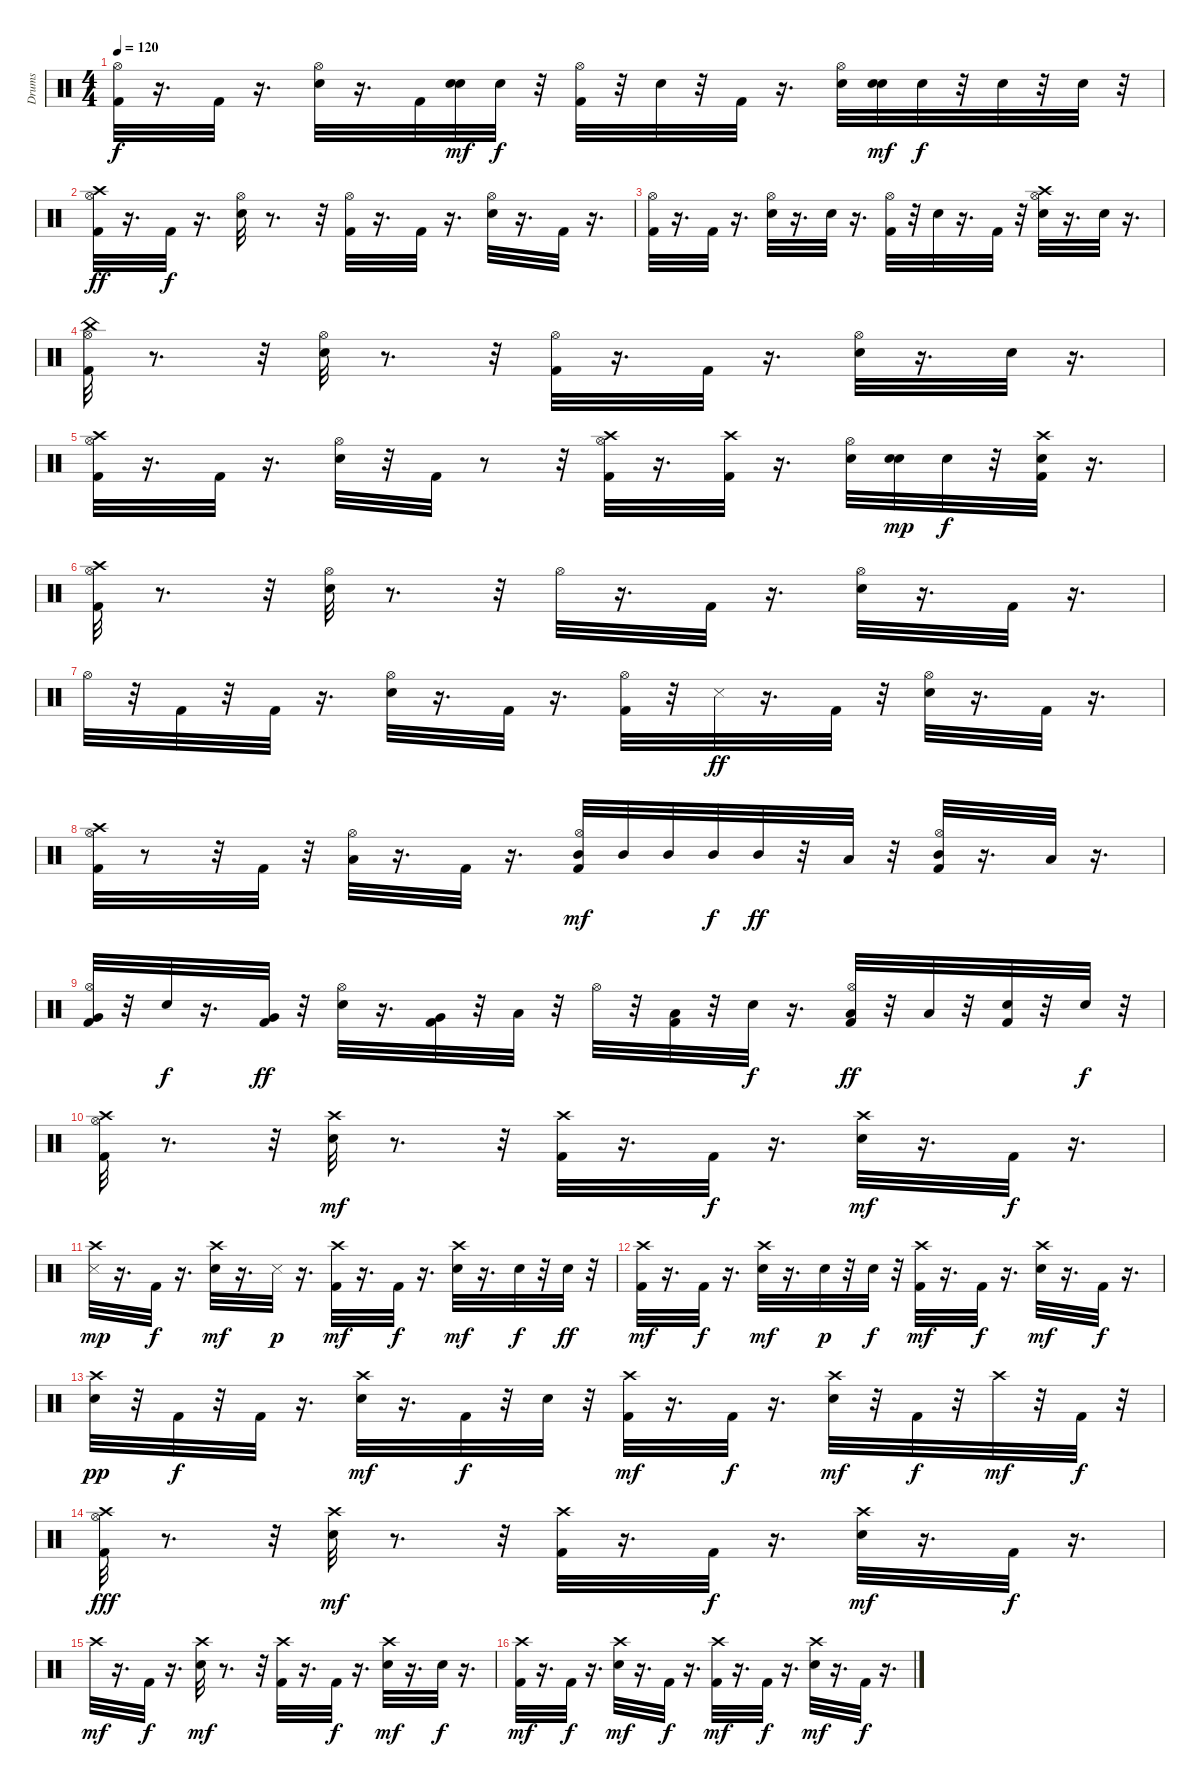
\track ("Drums" "Drums") {instrument percussion}
\staff {score}
\articulation defaults
\ts (4 4)
\tempo 120
\clef neutral
\ks c
("Kick (hit) 2" "Hi-Hat (open)").32{dy f} r.16{d} "Kick (hit) 2".32 r.16{d} ("Snare (hit) 2" "Hi-Hat (open)").32 r.16{d} "Kick (hit) 2".32 ("Snare (hit) 2" "Snare (hit) 2").32{dy mf} "Snare (hit) 2".32{dy f} r.32 ("Kick (hit) 2" "Hi-Hat (open)").32 r.32 "Snare (hit) 2".32 r.32 "Kick (hit) 2".32 r.16{d} ("Snare (hit) 2" "Hi-Hat (open)").32 ("Snare (hit) 2" "Snare (hit) 2").32{dy mf} "Snare (hit) 2".32{dy f} r.32 "Snare (hit) 2".32 r.32 "Snare (hit) 2".32 r.32 |
("Crash high (hit)" "Hi-Hat (open)" "Kick (hit) 2").32{dy ff} r.16{d} "Kick (hit) 2".32{dy f} r.16{d} ("Snare (hit) 2" "Hi-Hat (open)").32 r.8{d} r.32 ("Kick (hit) 2" "Hi-Hat (open)").32 r.16{d} "Kick (hit) 2".32 r.16{d} ("Snare (hit) 2" "Hi-Hat (open)").32 r.16{d} "Kick (hit) 2".32 r.16{d} |
("Kick (hit) 2" "Hi-Hat (open)").32 r.16{d} "Kick (hit) 2".32 r.16{d} ("Snare (hit) 2" "Hi-Hat (open)").32 r.16{d} "Snare (hit) 2".32 r.16{d} ("Kick (hit) 2" "Hi-Hat (open)").32 r.32 "Snare (hit) 2".32 r.16{d} "Kick (hit) 2".32 r.32 ("Crash high (hit)" "Snare (hit) 2" "Hi-Hat (open)").32 r.16{d} "Snare (hit) 2".32 r.16{d} |
("Kick (hit) 2" "Hi-Hat (open)" "China (hit)").32 r.8{d} r.32 ("Snare (hit) 2" "Hi-Hat (open)").32 r.8{d} r.32 ("Kick (hit) 2" "Hi-Hat (open)").32 r.16{d} "Kick (hit) 2".32 r.16{d} ("Snare (hit) 2" "Hi-Hat (open)").32 r.16{d} "Snare (hit) 2".32 r.16{d} |
("Crash high (hit)" "Kick (hit) 2" "Hi-Hat (open)").32 r.16{d} "Kick (hit) 2".32 r.16{d} ("Snare (hit) 2" "Hi-Hat (open)").32 r.32 "Kick (hit) 2".32 r.8 r.32 ("Crash high (hit)" "Kick (hit) 2" "Hi-Hat (open)").32 r.16{d} ("Crash high (hit)" "Kick (hit) 2").32 r.16{d} ("Snare (hit) 2" "Hi-Hat (open)").32 ("Snare (hit) 2" "Snare (hit) 2").32{dy mp} "Snare (hit) 2".32{dy f} r.32 ("Kick (hit) 2" "Crash high (hit)" "Snare (hit) 2").32 r.16{d} |
("Kick (hit) 2" "Hi-Hat (open)" "Crash high (hit)").32 r.8{d} r.32 ("Snare (hit) 2" "Hi-Hat (open)").32 r.8{d} r.32 "Hi-Hat (open)".32 r.16{d} "Kick (hit) 2".32 r.16{d} ("Snare (hit) 2" "Hi-Hat (open)").32 r.16{d} "Kick (hit) 2".32 r.16{d} |
"Hi-Hat (open)".32 r.32 "Kick (hit) 2".32 r.32 "Kick (hit) 2".32 r.16{d} ("Snare (hit) 2" "Hi-Hat (open)").32 r.16{d} "Kick (hit) 2".32 r.16{d} ("Kick (hit) 2" "Hi-Hat (open)").32 r.32 "Snare (side stick) 3".32{dy ff} r.16{d} "Kick (hit) 2".32 r.32 ("Snare (hit) 2" "Hi-Hat (open)").32 r.16{d} "Kick (hit) 2".32 r.16{d} |
("Crash high (hit)" "Hi-Hat (open)" "Kick (hit) 2").32 r.8 r.32 "Kick (hit) 2".32 r.32 ("Hi-Hat (open)" "Low Tom (hit)").32 r.16{d} "Kick (hit) 2".32 r.16{d} ("Kick (hit) 2" "Hi-Hat (open)" "Mid Tom (hit)").32{dy mf} "Mid Tom (hit)".32 "Mid Tom (hit)".32 "Mid Tom (hit)".32{dy f} "Mid Tom (hit)".32{dy ff} r.32 "Low Tom (hit)".32 r.32 ("Kick (hit) 2" "Hi-Hat (open)" "Mid Tom (hit)").32 r.16{d} "Low Tom (hit)".32 r.16{d} |
("Hi-Hat (open)" "Kick (hit) 2" "Very Low Tom (hit)").32 r.32 "Snare (hit) 2".32{dy f} r.16{d} ("Kick (hit) 2" "Very Low Tom (hit)").32{dy ff} r.32 ("Hi-Hat (open)" "Snare (hit) 2").32 r.16{d} ("Kick (hit) 2" "Very Low Tom (hit)").32 r.32 "Low Floor Tom (hit)".32 r.32 "Hi-Hat (open)".32 r.32 ("Kick (hit) 2" "Low Floor Tom (hit)").32 r.32 "Snare (hit) 2".32{dy f} r.16{d} ("Hi-Hat (open)" "Kick (hit) 2" "Low Floor Tom (hit)").32{dy ff} r.32 "Low Floor Tom (hit)".32 r.32 ("Kick (hit) 2" "Snare (hit) 2").32 r.32 "Snare (hit) 2".32{dy f} r.32 |
("Hi-Hat (open)" "Crash high (hit)" "Kick (hit) 2").32 r.8{d} r.32 ("Crash high (hit)" "Snare (hit) 2").32{dy mf} r.8{d} r.32 ("Crash high (hit)" "Kick (hit) 2").32 r.16{d} "Kick (hit) 2".32{dy f} r.16{d} ("Crash high (hit)" "Snare (hit) 2").32{dy mf} r.16{d} "Kick (hit) 2".32{dy f} r.16{d} |
("Crash high (hit)" "Snare (side stick) 3").32{dy mp} r.16{d} "Kick (hit) 2".32{dy f} r.16{d} ("Crash high (hit)" "Snare (hit) 2").32{dy mf} r.16{d} "Snare (side stick) 3".32{dy p} r.16{d} ("Crash high (hit)" "Kick (hit) 2").32{dy mf} r.16{d} "Kick (hit) 2".32{dy f} r.16{d} ("Crash high (hit)" "Snare (hit) 2").32{dy mf} r.16{d} "Snare (hit) 2".32{dy f} r.32 "Snare (hit) 2".32{dy ff} r.32 |
("Crash high (hit)" "Kick (hit) 2").32{dy mf} r.16{d} "Kick (hit) 2".32{dy f} r.16{d} ("Crash high (hit)" "Snare (hit) 2").32{dy mf} r.16{d} "Snare (hit) 2".32{dy p} r.32 "Snare (hit) 2".32{dy f} r.32 ("Crash high (hit)" "Kick (hit) 2").32{dy mf} r.16{d} "Kick (hit) 2".32{dy f} r.16{d} ("Crash high (hit)" "Snare (hit) 2").32{dy mf} r.16{d} "Kick (hit) 2".32{dy f} r.16{d} |
("Crash high (hit)" "Snare (hit) 2").32{dy pp} r.32 "Kick (hit) 2".32{dy f} r.32 "Kick (hit) 2".32 r.16{d} ("Crash high (hit)" "Snare (hit) 2").32{dy mf} r.16{d} "Kick (hit) 2".32{dy f} r.32 "Snare (hit) 2".32 r.32 ("Crash high (hit)" "Kick (hit) 2").32{dy mf} r.16{d} "Kick (hit) 2".32{dy f} r.16{d} ("Crash high (hit)" "Snare (hit) 2").32{dy mf} r.32 "Kick (hit) 2".32{dy f} r.32 "Crash high (hit)".32{dy mf} r.32 "Kick (hit) 2".32{dy f} r.32 |
("Hi-Hat (open)" "Crash high (hit)" "Kick (hit) 2").32{dy fff} r.8{d} r.32 ("Crash high (hit)" "Snare (hit) 2").32{dy mf} r.8{d} r.32 ("Crash high (hit)" "Kick (hit) 2").32 r.16{d} "Kick (hit) 2".32{dy f} r.16{d} ("Crash high (hit)" "Snare (hit) 2").32{dy mf} r.16{d} "Kick (hit) 2".32{dy f} r.16{d} |
"Crash high (hit)".32{dy mf} r.16{d} "Kick (hit) 2".32{dy f} r.16{d} ("Crash high (hit)" "Snare (hit) 2").32{dy mf} r.8{d} r.32 ("Crash high (hit)" "Kick (hit) 2").32 r.16{d} "Kick (hit) 2".32{dy f} r.16{d} ("Crash high (hit)" "Snare (hit) 2").32{dy mf} r.16{d} "Snare (hit) 2".32{dy f} r.16{d} |
("Crash high (hit)" "Kick (hit) 2").32{dy mf} r.16{d} "Kick (hit) 2".32{dy f} r.16{d} ("Crash high (hit)" "Snare (hit) 2").32{dy mf} r.16{d} "Kick (hit) 2".32{dy f} r.16{d} ("Crash high (hit)" "Kick (hit) 2").32{dy mf} r.16{d} "Kick (hit) 2".32{dy f} r.16{d} ("Crash high (hit)" "Snare (hit) 2").32{dy mf} r.16{d} "Kick (hit) 2".32{dy f} r.16{d}
